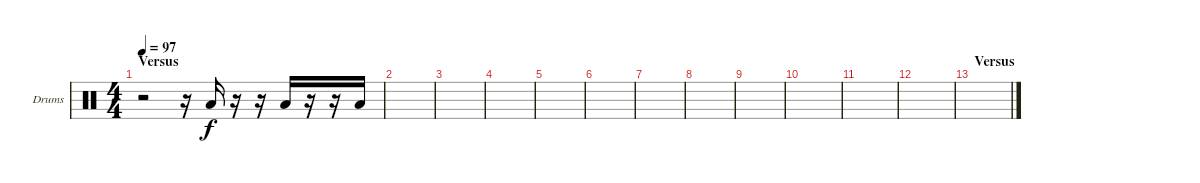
\bracketExtendMode groupsimilarinstruments
\firstSystemTrackNameOrientation horizontal
\otherSystemsTrackNameOrientation horizontal
\track ("Tom" "Drums") {instrument percussion}
\staff {score}
\articulation defaults
\ts (4 4)
\section ("" "Versus")
\tempo 97
\clef neutral
\scale
0.333333
\ks c
r.2{dy f} r.16 "Low Tom (hit)".16 r.16 r.16 "Low Tom (hit)".16 r.16 r.16 "Low Tom (hit)".16 |
|
|
|
|
|
|
|
|
|
|
|
\section ("" "Versus")
